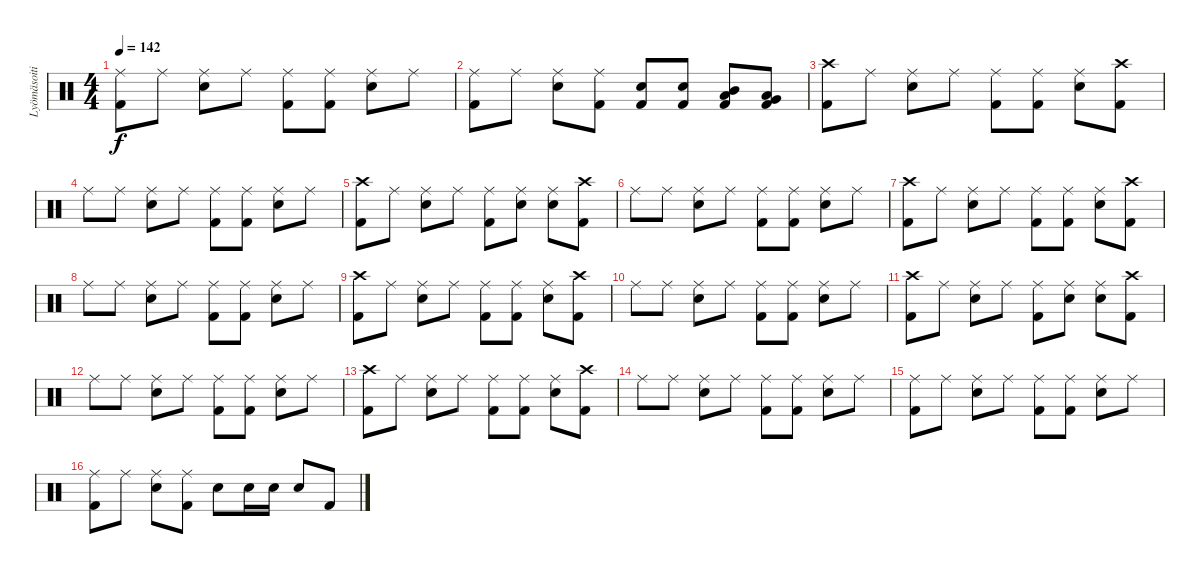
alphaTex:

\track ("Lyömäsoitin" "Lyömäsoiti") {instrument percussion}
\staff {score}
\articulation defaults
\ts (4 4)
\tempo 142
\clef neutral
\ks c
("Ride (middle)" "Kick (hit) 2").8{dy f} "Ride (middle)".8 ("Ride (middle)" "Electric Snare (hit)").8 "Ride (middle)".8 ("Ride (middle)" "Kick (hit) 2").8 ("Ride (middle)" "Kick (hit) 2").8 ("Ride (middle)" "Electric Snare (hit)").8 "Ride (middle)".8 |
("Ride (middle)" "Kick (hit) 2").8 "Ride (middle)".8 ("Ride (middle)" "Electric Snare (hit)").8 ("Ride (middle)" "Kick (hit) 2").8 ("Electric Snare (hit)" "Kick (hit) 2").8 ("Electric Snare (hit)" "Kick (hit) 2").8 ("Mid Tom (hit)" "Low Tom (hit)" "Kick (hit) 2").8 ("Low Tom (hit)" "Very Low Tom (hit)" "Kick (hit) 2").8 |
("Crash high (hit)" "Kick (hit) 2").8 "Ride (middle)".8 ("Ride (middle)" "Electric Snare (hit)").8 "Ride (middle)".8 ("Ride (middle)" "Kick (hit) 2").8 ("Ride (middle)" "Kick (hit) 2").8 ("Ride (middle)" "Electric Snare (hit)").8 ("Crash high (hit)" "Kick (hit) 2").8 |
"Ride (middle)".8 "Ride (middle)".8 ("Ride (middle)" "Electric Snare (hit)").8 "Ride (middle)".8 ("Ride (middle)" "Kick (hit) 2").8 ("Ride (middle)" "Kick (hit) 2").8 ("Ride (middle)" "Electric Snare (hit)").8 "Ride (middle)".8 |
("Crash high (hit)" "Kick (hit) 2").8 "Ride (middle)".8 ("Ride (middle)" "Electric Snare (hit)").8 "Ride (middle)".8 ("Ride (middle)" "Kick (hit) 2").8 ("Ride (middle)" "Electric Snare (hit)").8 ("Ride (middle)" "Electric Snare (hit)").8 ("Crash high (hit)" "Kick (hit) 2").8 |
"Ride (middle)".8 "Ride (middle)".8 ("Ride (middle)" "Electric Snare (hit)").8 "Ride (middle)".8 ("Ride (middle)" "Kick (hit) 2").8 ("Ride (middle)" "Kick (hit) 2").8 ("Ride (middle)" "Electric Snare (hit)").8 "Ride (middle)".8 |
("Crash high (hit)" "Kick (hit) 2").8 "Ride (middle)".8 ("Ride (middle)" "Electric Snare (hit)").8 "Ride (middle)".8 ("Ride (middle)" "Kick (hit) 2").8 ("Ride (middle)" "Kick (hit) 2").8 ("Ride (middle)" "Electric Snare (hit)").8 ("Crash high (hit)" "Kick (hit) 2").8 |
"Ride (middle)".8 "Ride (middle)".8 ("Ride (middle)" "Electric Snare (hit)").8 "Ride (middle)".8 ("Ride (middle)" "Kick (hit) 2").8 ("Ride (middle)" "Kick (hit) 2").8 ("Ride (middle)" "Electric Snare (hit)").8 "Ride (middle)".8 |
("Crash high (hit)" "Kick (hit) 2").8 "Ride (middle)".8 ("Ride (middle)" "Electric Snare (hit)").8 "Ride (middle)".8 ("Ride (middle)" "Kick (hit) 2").8 ("Ride (middle)" "Kick (hit) 2").8 ("Ride (middle)" "Electric Snare (hit)").8 ("Crash high (hit)" "Kick (hit) 2").8 |
"Ride (middle)".8 "Ride (middle)".8 ("Ride (middle)" "Electric Snare (hit)").8 "Ride (middle)".8 ("Ride (middle)" "Kick (hit) 2").8 ("Ride (middle)" "Kick (hit) 2").8 ("Ride (middle)" "Electric Snare (hit)").8 "Ride (middle)".8 |
("Crash high (hit)" "Kick (hit) 2").8 "Ride (middle)".8 ("Ride (middle)" "Electric Snare (hit)").8 "Ride (middle)".8 ("Ride (middle)" "Kick (hit) 2").8 ("Ride (middle)" "Electric Snare (hit)").8 ("Ride (middle)" "Electric Snare (hit)").8 ("Crash high (hit)" "Kick (hit) 2").8 |
"Ride (middle)".8 "Ride (middle)".8 ("Ride (middle)" "Electric Snare (hit)").8 "Ride (middle)".8 ("Ride (middle)" "Kick (hit) 2").8 ("Ride (middle)" "Kick (hit) 2").8 ("Ride (middle)" "Electric Snare (hit)").8 "Ride (middle)".8 |
("Crash high (hit)" "Kick (hit) 2").8 "Ride (middle)".8 ("Ride (middle)" "Electric Snare (hit)").8 "Ride (middle)".8 ("Ride (middle)" "Kick (hit) 2").8 ("Ride (middle)" "Kick (hit) 2").8 ("Ride (middle)" "Electric Snare (hit)").8 ("Crash high (hit)" "Kick (hit) 2").8 |
"Ride (middle)".8 "Ride (middle)".8 ("Ride (middle)" "Electric Snare (hit)").8 "Ride (middle)".8 ("Ride (middle)" "Kick (hit) 2").8 ("Ride (middle)" "Kick (hit) 2").8 ("Ride (middle)" "Electric Snare (hit)").8 "Ride (middle)".8 |
("Ride (middle)" "Kick (hit) 2").8 "Ride (middle)".8 ("Ride (middle)" "Electric Snare (hit)").8 "Ride (middle)".8 ("Ride (middle)" "Kick (hit) 2").8 ("Ride (middle)" "Kick (hit) 2").8 ("Ride (middle)" "Electric Snare (hit)").8 "Ride (middle)".8 |
("Ride (middle)" "Kick (hit) 2").8 "Ride (middle)".8 ("Ride (middle)" "Electric Snare (hit)").8 ("Ride (middle)" "Kick (hit) 2").8 "Electric Snare (hit)".8 "Electric Snare (hit)".16 "Electric Snare (hit)".16 "Electric Snare (hit)".8 "Kick (hit) 2".8
